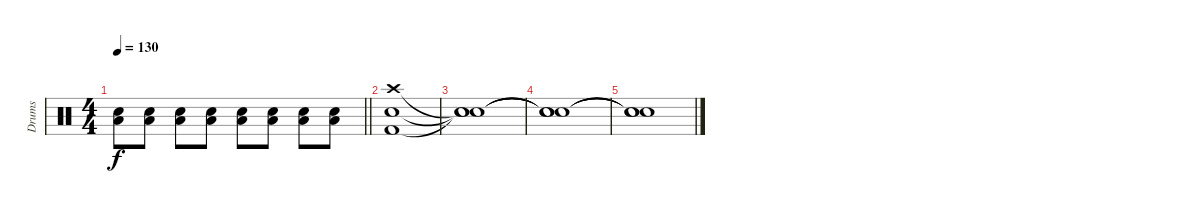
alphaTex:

\track ("Drums" "Drums") {instrument percussion}
\staff {score}
\articulation defaults
\ts (4 4)
\tempo 130
\clef neutral
\barLineRight lightlight
\ks c
("Snare (hit) 2" "Low Floor Tom (hit)").8{dy f} ("Snare (hit) 2" "Low Floor Tom (hit)").8 ("Snare (hit) 2" "Low Floor Tom (hit)").8 ("Snare (hit) 2" "Low Floor Tom (hit)").8 ("Snare (hit) 2" "Low Floor Tom (hit)").8 ("Snare (hit) 2" "Low Floor Tom (hit)").8 ("Snare (hit) 2" "Low Floor Tom (hit)").8 ("Snare (hit) 2" "Low Floor Tom (hit)").8 |
("Crash high (hit)" "Snare (hit) 2" "Kick (hit) 2").1 |
("Snare (hit)"{t} "Snare (hit)"{t} "Snare (hit)"{t}).1 |
("Snare (hit)"{t} "Snare (hit)"{t} "Snare (hit)"{t}).1 |
("Snare (hit)"{t} "Snare (hit)"{t} "Snare (hit)"{t}).1
